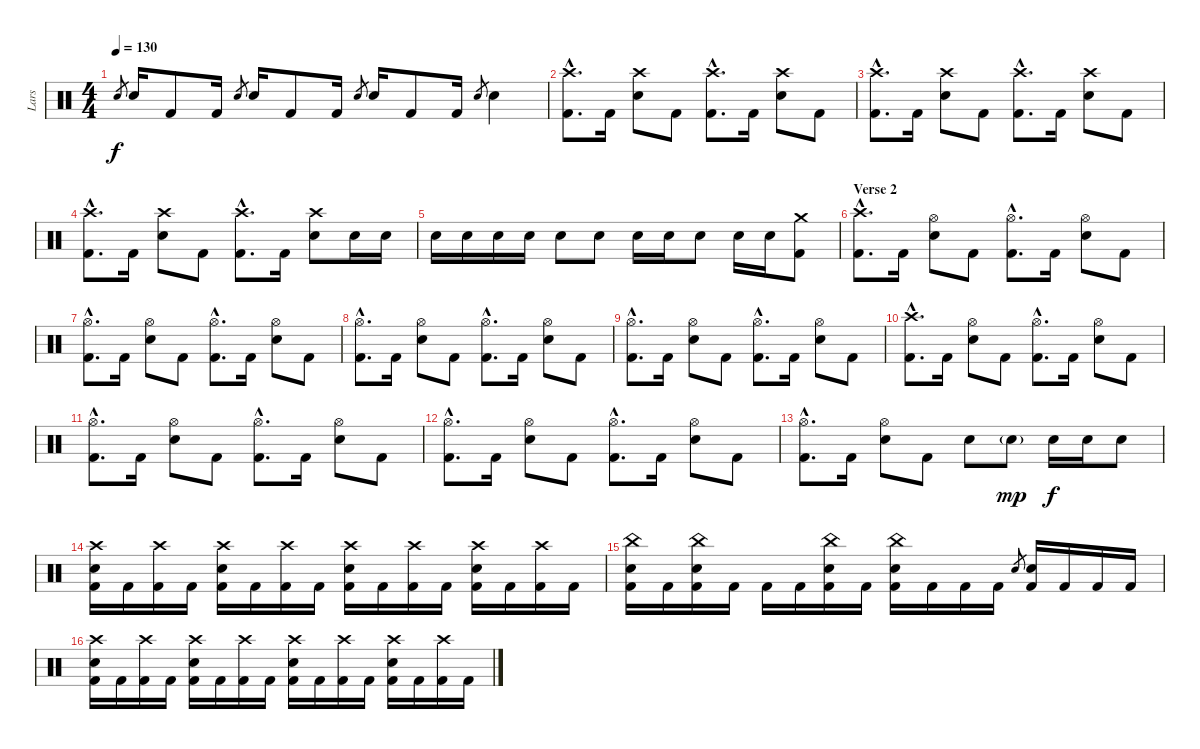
\track ("Lars" "Lars") {instrument percussion}
\staff {score}
\articulation defaults
\ts (4 4)
\tempo 130
\clef neutral
\ks c "Electric Snare (hit)".8{gr dy f} "Electric Snare (hit)".16 "Kick (hit) 2".8 "Kick (hit) 2".16 "Electric Snare (hit)".8{gr} "Electric Snare (hit)".16 "Kick (hit) 2".8 "Kick (hit) 2".16 "Electric Snare (hit)".8{gr} "Electric Snare (hit)".16 "Kick (hit) 2".8 "Kick (hit) 2".16 "Electric Snare (hit)".8{gr} "Electric Snare (hit)".4
|
("Kick (hit) 2"{hac} "Crash high (hit)"{hac}).8{d} "Kick (hit) 2".16 ("Electric Snare (hit)" "Crash high (hit)").8 "Kick (hit) 2".8 ("Kick (hit) 2"{hac} "Crash high (hit)"{hac}).8{d} "Kick (hit) 2".16 ("Electric Snare (hit)" "Crash high (hit)").8 "Kick (hit) 2".8 |
("Kick (hit) 2"{hac} "Crash high (hit)"{hac}).8{d} "Kick (hit) 2".16 ("Electric Snare (hit)" "Crash high (hit)").8 "Kick (hit) 2".8 ("Kick (hit) 2"{hac} "Crash high (hit)"{hac}).8{d} "Kick (hit) 2".16 ("Electric Snare (hit)" "Crash high (hit)").8 "Kick (hit) 2".8 |
("Kick (hit) 2"{hac} "Crash high (hit)"{hac}).8{d} "Kick (hit) 2".16 ("Electric Snare (hit)" "Crash high (hit)").8 "Kick (hit) 2".8 ("Kick (hit) 2"{hac} "Crash high (hit)"{hac}).8{d} "Kick (hit) 2".16 ("Electric Snare (hit)" "Crash high (hit)").8 "Electric Snare (hit)".16 "Electric Snare (hit)".16 |
"Electric Snare (hit)".16 "Electric Snare (hit)".16 "Electric Snare (hit)".16 "Electric Snare (hit)".16 "Electric Snare (hit)".8 "Electric Snare (hit)".8 "Electric Snare (hit)".16 "Electric Snare (hit)".16 "Electric Snare (hit)".8 "Electric Snare (hit)".16 "Electric Snare (hit)".16 ("Kick (hit) 2" "Crash medium (hit)").8 |
\section ("" "Verse 2")
("Kick (hit) 2"{hac} "Crash high (hit)"{hac}).8{d} "Kick (hit) 2".16 ("Electric Snare (hit)" "Hi-Hat (open)").8 "Kick (hit) 2".8 ("Kick (hit) 2"{hac} "Hi-Hat (open)"{hac}).8{d} "Kick (hit) 2".16 ("Electric Snare (hit)" "Hi-Hat (open)").8 "Kick (hit) 2".8 |
("Kick (hit) 2"{hac} "Hi-Hat (open)"{hac}).8{d} "Kick (hit) 2".16 ("Electric Snare (hit)" "Hi-Hat (open)").8 "Kick (hit) 2".8 ("Kick (hit) 2"{hac} "Hi-Hat (open)"{hac}).8{d} "Kick (hit) 2".16 ("Electric Snare (hit)" "Hi-Hat (open)").8 "Kick (hit) 2".8 |
("Kick (hit) 2"{hac} "Hi-Hat (open)"{hac}).8{d} "Kick (hit) 2".16 ("Electric Snare (hit)" "Hi-Hat (open)").8 "Kick (hit) 2".8 ("Kick (hit) 2"{hac} "Hi-Hat (open)"{hac}).8{d} "Kick (hit) 2".16 ("Electric Snare (hit)" "Hi-Hat (open)").8 "Kick (hit) 2".8 |
("Kick (hit) 2"{hac} "Hi-Hat (open)"{hac}).8{d} "Kick (hit) 2".16 ("Electric Snare (hit)" "Hi-Hat (open)").8 "Kick (hit) 2".8 ("Kick (hit) 2"{hac} "Hi-Hat (open)"{hac}).8{d} "Kick (hit) 2".16 ("Electric Snare (hit)" "Hi-Hat (open)").8 "Kick (hit) 2".8 |
("Kick (hit) 2"{hac} "Crash high (hit)"{hac}).8{d} "Kick (hit) 2".16 ("Electric Snare (hit)" "Hi-Hat (open)").8 "Kick (hit) 2".8 ("Kick (hit) 2"{hac} "Hi-Hat (open)"{hac}).8{d} "Kick (hit) 2".16 ("Electric Snare (hit)" "Hi-Hat (open)").8 "Kick (hit) 2".8 |
("Kick (hit) 2"{hac} "Hi-Hat (open)"{hac}).8{d} "Kick (hit) 2".16 ("Electric Snare (hit)" "Hi-Hat (open)").8 "Kick (hit) 2".8 ("Kick (hit) 2"{hac} "Hi-Hat (open)"{hac}).8{d} "Kick (hit) 2".16 ("Electric Snare (hit)" "Hi-Hat (open)").8 "Kick (hit) 2".8 |
("Kick (hit) 2"{hac} "Hi-Hat (open)"{hac}).8{d} "Kick (hit) 2".16 ("Electric Snare (hit)" "Hi-Hat (open)").8 "Kick (hit) 2".8 ("Kick (hit) 2"{hac} "Hi-Hat (open)"{hac}).8{d} "Kick (hit) 2".16 ("Electric Snare (hit)" "Hi-Hat (open)").8 "Kick (hit) 2".8 |
("Kick (hit) 2"{hac} "Hi-Hat (open)"{hac}).8{d} "Kick (hit) 2".16 ("Electric Snare (hit)" "Hi-Hat (open)").8 "Kick (hit) 2".8 "Electric Snare (hit)".8 "Electric Snare (hit)"{g}.8{dy mp} "Electric Snare (hit)".16{dy f} "Electric Snare (hit)".16 "Electric Snare (hit)".8 |
\section ("" "")
("Kick (hit) 2" "Electric Snare (hit)" "Crash high (hit)").16 "Kick (hit) 2".16 ("Kick (hit) 2" "Crash high (hit)").16 "Kick (hit) 2".16 ("Kick (hit) 2" "Electric Snare (hit)" "Crash high (hit)").16 "Kick (hit) 2".16 ("Kick (hit) 2" "Crash high (hit)").16 "Kick (hit) 2".16 ("Kick (hit) 2" "Electric Snare (hit)" "Crash high (hit)").16 "Kick (hit) 2".16 ("Kick (hit) 2" "Crash high (hit)").16 "Kick (hit) 2".16 ("Kick (hit) 2" "Electric Snare (hit)" "Crash high (hit)").16 "Kick (hit) 2".16 ("Kick (hit) 2" "Crash high (hit)").16 "Kick (hit) 2".16 |
("Kick (hit) 2" "Electric Snare (hit)" "China (hit)").16 "Kick (hit) 2".16 ("Kick (hit) 2" "Electric Snare (hit)" "China (hit)").16 "Kick (hit) 2".16 "Kick (hit) 2".16 "Kick (hit) 2".16 ("Kick (hit) 2" "Electric Snare (hit)" "China (hit)").16 "Kick (hit) 2".16 ("Kick (hit) 2" "Electric Snare (hit)" "China (hit)").16 "Kick (hit) 2".16 "Kick (hit) 2".16 "Kick (hit) 2".16 "Electric Snare (hit)".8{gr} ("Kick (hit) 2" "Electric Snare (hit)").16 "Kick (hit) 2".16 "Kick (hit) 2".16 "Kick (hit) 2".16 |
("Kick (hit) 2" "Electric Snare (hit)" "Crash high (hit)").16 "Kick (hit) 2".16 ("Kick (hit) 2" "Crash high (hit)").16 "Kick (hit) 2".16 ("Kick (hit) 2" "Electric Snare (hit)" "Crash high (hit)").16 "Kick (hit) 2".16 ("Kick (hit) 2" "Crash high (hit)").16 "Kick (hit) 2".16 ("Kick (hit) 2" "Electric Snare (hit)" "Crash high (hit)").16 "Kick (hit) 2".16 ("Kick (hit) 2" "Crash high (hit)").16 "Kick (hit) 2".16 ("Kick (hit) 2" "Electric Snare (hit)" "Crash high (hit)").16 "Kick (hit) 2".16 ("Kick (hit) 2" "Crash high (hit)").16 "Kick (hit) 2".16
